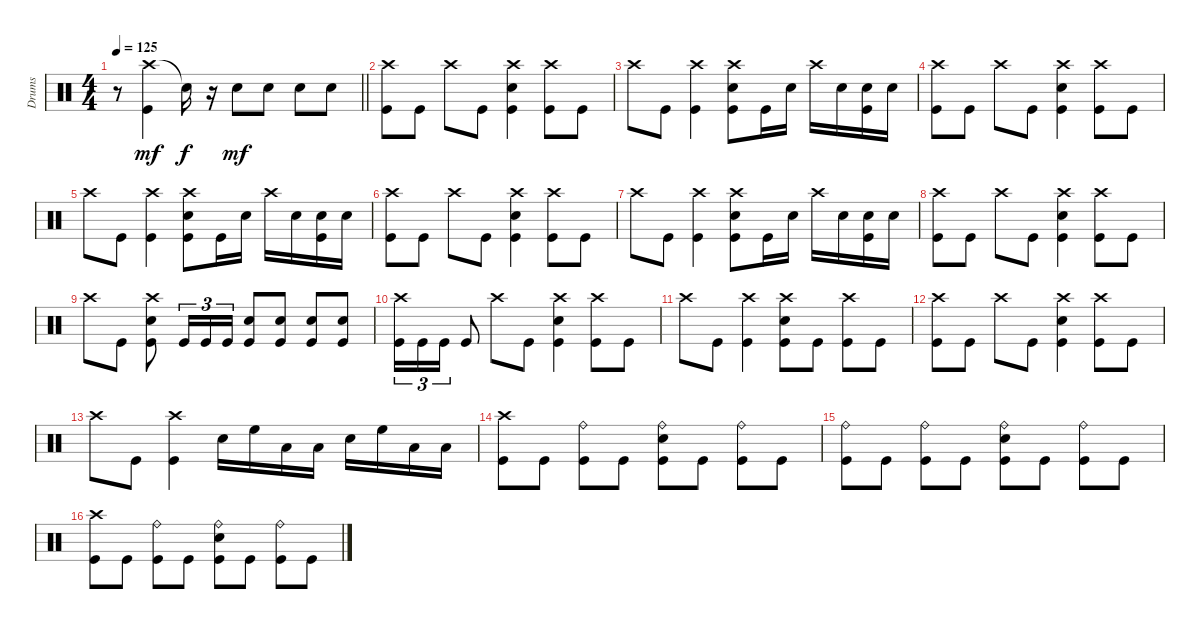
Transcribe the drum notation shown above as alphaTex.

\track ("Drums" "Drums") {instrument percussion}
\staff {score}
\articulation defaults
\ts (4 4)
\tempo 125
\clef neutral
\barLineRight lightlight
\ks c
r.8{dy mf} ("Crash high (hit)" "Kick (hit)").4 "Snare (hit)"{t}.16{dy f} r.16 "Snare (hit) 2".8{dy mf} "Snare (hit) 2".8 "Snare (hit) 2".8 "Snare (hit) 2".8 |
("Kick (hit)" "Crash high (hit)").8 "Kick (hit)".8 "Crash high (hit)".8 "Kick (hit)".8 ("Kick (hit)" "Snare (hit) 2" "Crash high (hit)").4 ("Kick (hit)" "Crash high (hit)").8 "Kick (hit)".8 |
"Crash high (hit)".8 "Kick (hit)".8 ("Kick (hit)" "Crash high (hit)").4 ("Kick (hit)" "Snare (hit) 2" "Crash high (hit)").8 "Kick (hit)".16 "Snare (hit) 2".16 "Crash high (hit)".16 "Snare (hit) 2".16 ("Snare (hit) 2" "Kick (hit)").16 "Snare (hit) 2".16 |
("Crash high (hit)" "Kick (hit)").8 "Kick (hit)".8 "Crash high (hit)".8 "Kick (hit)".8 ("Snare (hit) 2" "Crash high (hit)" "Kick (hit)").4 ("Crash high (hit)" "Kick (hit)").8 "Kick (hit)".8 |
"Crash high (hit)".8 "Kick (hit)".8 ("Kick (hit)" "Crash high (hit)").4 ("Kick (hit)" "Snare (hit) 2" "Crash high (hit)").8 "Kick (hit)".16 "Snare (hit) 2".16 "Crash high (hit)".16 "Snare (hit) 2".16 ("Kick (hit)" "Snare (hit) 2").16 "Snare (hit) 2".16 |
("Crash high (hit)" "Kick (hit)").8 "Kick (hit)".8 "Crash high (hit)".8 "Kick (hit)".8 ("Snare (hit) 2" "Crash high (hit)" "Kick (hit)").4 ("Crash high (hit)" "Kick (hit)").8 "Kick (hit)".8 |
"Crash high (hit)".8 "Kick (hit)".8 ("Crash high (hit)" "Kick (hit)").4 ("Snare (hit) 2" "Crash high (hit)" "Kick (hit)").8 "Kick (hit)".16 "Snare (hit) 2".16 "Crash high (hit)".16 "Snare (hit) 2".16 ("Kick (hit)" "Snare (hit) 2").16 "Snare (hit) 2".16 |
("Crash high (hit)" "Kick (hit)").8 "Kick (hit)".8 "Crash high (hit)".8 "Kick (hit)".8 ("Snare (hit) 2" "Crash high (hit)" "Kick (hit)").4 ("Crash high (hit)" "Kick (hit)").8 "Kick (hit)".8 |
"Crash high (hit)".8 "Kick (hit)".8 ("Snare (hit) 2" "Crash high (hit)" "Kick (hit)").8 "Kick (hit)".16{tu (3 2)} "Kick (hit)".16{tu (3 2)} "Kick (hit)".16{tu (3 2)} ("Kick (hit)" "Snare (hit) 2").8 ("Kick (hit)" "Snare (hit) 2").8 ("Kick (hit)" "Snare (hit) 2").8 ("Kick (hit)" "Snare (hit) 2").8 |
("Kick (hit)" "Crash high (hit)").16{tu (3 2)} "Kick (hit)".16{tu (3 2)} "Kick (hit)".16{tu (3 2)} "Kick (hit)".8 "Crash high (hit)".8 "Kick (hit)".8 ("Snare (hit) 2" "Crash high (hit)" "Kick (hit)").4 ("Crash high (hit)" "Kick (hit)").8 "Kick (hit)".8 |
"Crash high (hit)".8 "Kick (hit)".8 ("Kick (hit)" "Crash high (hit)").4 ("Kick (hit)" "Snare (hit) 2" "Crash high (hit)").8 "Kick (hit)".8 ("Crash high (hit)" "Kick (hit)").8 "Kick (hit)".8 |
("Crash high (hit)" "Kick (hit)").8 "Kick (hit)".8 "Crash high (hit)".8 "Kick (hit)".8 ("Snare (hit) 2" "Crash high (hit)" "Kick (hit)").4 ("Crash high (hit)" "Kick (hit)").8 "Kick (hit)".8 |
"Crash high (hit)".8 "Kick (hit)".8 ("Crash high (hit)" "Kick (hit)").4 "Snare (hit) 2".16 "High Floor Tom (hit)".16 "Low Tom (hit)".16 "Low Floor Tom (hit)".16 "Snare (hit) 2".16 "High Floor Tom (hit)".16 "Low Tom (hit)".16 "Low Floor Tom (hit)".16 |
("Kick (hit)" "Crash high (hit)").8 "Kick (hit)".8 ("Kick (hit)" "Ride (bell)").8 "Kick (hit)".8 ("Kick (hit)" "Snare (hit) 2" "Ride (bell)").8 "Kick (hit)".8 ("Kick (hit)" "Ride (bell)").8 "Kick (hit)".8 |
("Ride (bell)" "Kick (hit)").8 "Kick (hit)".8 ("Ride (bell)" "Kick (hit)").8 "Kick (hit)".8 ("Snare (hit) 2" "Ride (bell)" "Kick (hit)").8 "Kick (hit)".8 ("Ride (bell)" "Kick (hit)").8 "Kick (hit)".8 |
("Crash high (hit)" "Kick (hit)").8 "Kick (hit)".8 ("Ride (bell)" "Kick (hit)").8 "Kick (hit)".8 ("Snare (hit) 2" "Ride (bell)" "Kick (hit)").8 "Kick (hit)".8 ("Ride (bell)" "Kick (hit)").8 "Kick (hit)".8
